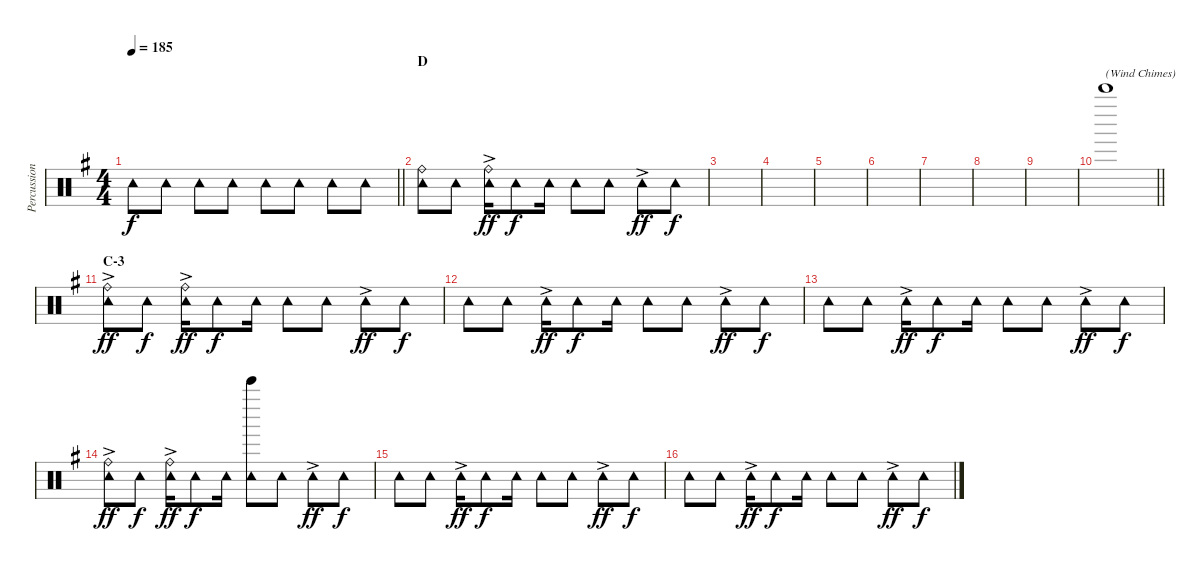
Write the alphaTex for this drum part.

\track ("Percussion I" "Percussion") {instrument percussion}
\staff {score}
\articulation defaults
\ts (4 4)
\tempo 185
\clef neutral
\barLineRight lightlight
\ks g "Tambourine (hit)".8{dy f} "Tambourine (hit)".8 "Tambourine (hit)".8 "Tambourine (hit)".8 "Tambourine (hit)".8 "Tambourine (hit)".8 "Tambourine (hit)".8 "Tambourine (hit)".8
|
\section ("" "D")
("Ride (bell)" "Tambourine (hit)").8 "Tambourine (hit)".8 ("Ride (bell)" "Tambourine (hit)"{ac}).16{dy ff} "Tambourine (hit)".8{dy f} "Tambourine (hit)".16 "Tambourine (hit)".8 "Tambourine (hit)".8 "Tambourine (hit)"{ac}.8{dy ff} "Tambourine (hit)".8{dy f} |
|
|
|
|
|
|
|
\barLineRight lightlight "Bell Tree (hit)".1{txt "(Wind Chimes)"}
|
\section ("" "C-3")
("Ride (bell)"{ac} "Tambourine (hit)").8{dy ff} "Tambourine (hit)".8{dy f} ("Ride (bell)" "Tambourine (hit)"{ac}).16{dy ff} "Tambourine (hit)".8{dy f} "Tambourine (hit)".16 "Tambourine (hit)".8 "Tambourine (hit)".8 "Tambourine (hit)"{ac}.8{dy ff} "Tambourine (hit)".8{dy f} |
"Tambourine (hit)".8 "Tambourine (hit)".8 "Tambourine (hit)"{ac}.16{dy ff} "Tambourine (hit)".8{dy f} "Tambourine (hit)".16 "Tambourine (hit)".8 "Tambourine (hit)".8 "Tambourine (hit)"{ac}.8{dy ff} "Tambourine (hit)".8{dy f} |
"Tambourine (hit)".8 "Tambourine (hit)".8 "Tambourine (hit)"{ac}.16{dy ff} "Tambourine (hit)".8{dy f} "Tambourine (hit)".16 "Tambourine (hit)".8 "Tambourine (hit)".8 "Tambourine (hit)"{ac}.8{dy ff} "Tambourine (hit)".8{dy f} |
("Ride (bell)"{ac} "Tambourine (hit)").8{dy ff} "Tambourine (hit)".8{dy f} ("Ride (bell)" "Tambourine (hit)"{ac}).16{dy ff} "Tambourine (hit)".8{dy f} "Tambourine (hit)".16 ("Tambourine (hit)" "Bell Tree (hit)").8 "Tambourine (hit)".8 "Tambourine (hit)"{ac}.8{dy ff} "Tambourine (hit)".8{dy f} |
"Tambourine (hit)".8 "Tambourine (hit)".8 "Tambourine (hit)"{ac}.16{dy ff} "Tambourine (hit)".8{dy f} "Tambourine (hit)".16 "Tambourine (hit)".8 "Tambourine (hit)".8 "Tambourine (hit)"{ac}.8{dy ff} "Tambourine (hit)".8{dy f} |
"Tambourine (hit)".8 "Tambourine (hit)".8 "Tambourine (hit)"{ac}.16{dy ff} "Tambourine (hit)".8{dy f} "Tambourine (hit)".16 "Tambourine (hit)".8 "Tambourine (hit)".8 "Tambourine (hit)"{ac}.8{dy ff} "Tambourine (hit)".8{dy f}
